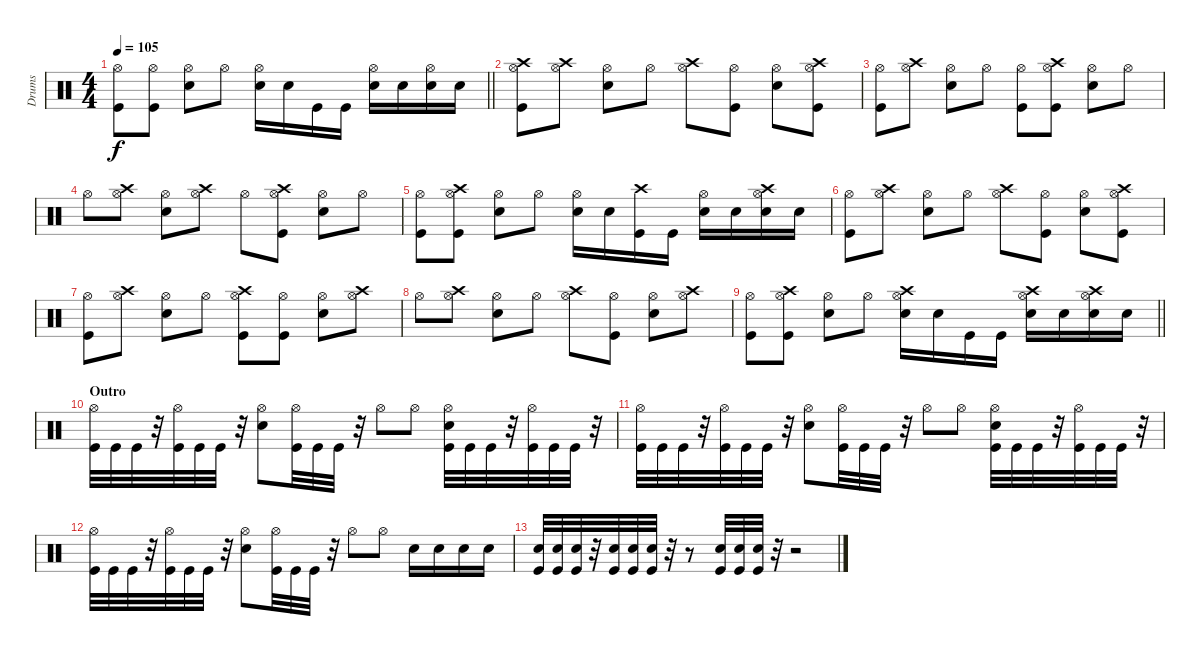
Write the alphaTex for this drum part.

\track ("Drums" "Drums") {instrument percussion}
\staff {score}
\articulation defaults
\ts (4 4)
\tempo 105
\clef neutral
\barLineRight lightlight
\ks c
("Kick (hit)" "Hi-Hat (open)").8{dy f} ("Kick (hit)" "Hi-Hat (open)").8 ("Snare (hit) 2" "Hi-Hat (open)").8 "Hi-Hat (open)".8 ("Snare (hit) 2" "Hi-Hat (open)").16 "Snare (hit) 2".16 "Kick (hit)".16 "Kick (hit)".16 ("Snare (hit) 2" "Hi-Hat (open)").16 "Snare (hit) 2".16 ("Snare (hit) 2" "Hi-Hat (open)").16 "Snare (hit) 2".16 |
("Kick (hit)" "Hi-Hat (open)" "Crash high (hit)").8 ("Crash high (hit)" "Hi-Hat (open)").8 ("Snare (hit) 2" "Hi-Hat (open)").8 "Hi-Hat (open)".8 ("Crash high (hit)" "Hi-Hat (open)").8 ("Kick (hit)" "Hi-Hat (open)").8 ("Snare (hit) 2" "Hi-Hat (open)").8 ("Crash high (hit)" "Kick (hit)" "Hi-Hat (open)").8 |
("Kick (hit)" "Hi-Hat (open)").8 ("Crash high (hit)" "Hi-Hat (open)").8 ("Snare (hit) 2" "Hi-Hat (open)").8 "Hi-Hat (open)".8 ("Kick (hit)" "Hi-Hat (open)").8 ("Crash high (hit)" "Kick (hit)" "Hi-Hat (open)").8 ("Snare (hit) 2" "Hi-Hat (open)").8 "Hi-Hat (open)".8 |
"Hi-Hat (open)".8 ("Crash high (hit)" "Hi-Hat (open)").8 ("Snare (hit) 2" "Hi-Hat (open)").8 ("Crash high (hit)" "Hi-Hat (open)").8 "Hi-Hat (open)".8 ("Crash high (hit)" "Kick (hit)" "Hi-Hat (open)").8 ("Snare (hit) 2" "Hi-Hat (open)").8 "Hi-Hat (open)".8 |
("Kick (hit)" "Hi-Hat (open)").8 ("Crash high (hit)" "Kick (hit)" "Hi-Hat (open)").8 ("Snare (hit) 2" "Hi-Hat (open)").8 "Hi-Hat (open)".8 ("Snare (hit) 2" "Hi-Hat (open)").16 "Snare (hit) 2".16 ("Crash high (hit)" "Kick (hit)").16 "Kick (hit)".16 ("Snare (hit) 2" "Hi-Hat (open)").16 "Snare (hit) 2".16 ("Crash high (hit)" "Snare (hit) 2" "Hi-Hat (open)").16 "Snare (hit) 2".16 |
("Kick (hit)" "Hi-Hat (open)").8 ("Crash high (hit)" "Hi-Hat (open)").8 ("Snare (hit) 2" "Hi-Hat (open)").8 "Hi-Hat (open)".8 ("Crash high (hit)" "Hi-Hat (open)").8 ("Kick (hit)" "Hi-Hat (open)").8 ("Snare (hit) 2" "Hi-Hat (open)").8 ("Crash high (hit)" "Kick (hit)" "Hi-Hat (open)").8 |
("Kick (hit)" "Hi-Hat (open)").8 ("Crash high (hit)" "Hi-Hat (open)").8 ("Snare (hit) 2" "Hi-Hat (open)").8 "Hi-Hat (open)".8 ("Crash high (hit)" "Kick (hit)" "Hi-Hat (open)").8 ("Kick (hit)" "Hi-Hat (open)").8 ("Snare (hit) 2" "Hi-Hat (open)").8 ("Crash high (hit)" "Hi-Hat (open)").8 |
"Hi-Hat (open)".8 ("Crash high (hit)" "Hi-Hat (open)").8 ("Snare (hit) 2" "Hi-Hat (open)").8 "Hi-Hat (open)".8 ("Crash high (hit)" "Hi-Hat (open)").8 ("Kick (hit)" "Hi-Hat (open)").8 ("Snare (hit) 2" "Hi-Hat (open)").8 ("Crash high (hit)" "Hi-Hat (open)").8 |
\barLineRight lightlight
("Kick (hit)" "Hi-Hat (open)").8 ("Crash high (hit)" "Kick (hit)" "Hi-Hat (open)").8 ("Snare (hit) 2" "Hi-Hat (open)").8 "Hi-Hat (open)".8 ("Crash high (hit)" "Snare (hit) 2" "Hi-Hat (open)").16 "Snare (hit) 2".16 "Kick (hit)".16 "Kick (hit)".16 ("Crash high (hit)" "Snare (hit) 2" "Hi-Hat (open)").16 "Snare (hit) 2".16 ("Crash high (hit)" "Snare (hit) 2" "Hi-Hat (open)").16 "Snare (hit) 2".16 |
\section ("" "Outro")
("Kick (hit)" "Hi-Hat (open)").32 "Kick (hit)".32 "Kick (hit)".32 r.32 ("Kick (hit)" "Hi-Hat (open)").32 "Kick (hit)".32 "Kick (hit)".32 r.32 ("Hi-Hat (open)" "Snare (hit) 2").8 ("Hi-Hat (open)" "Kick (hit)").32 "Kick (hit)".32 "Kick (hit)".32 r.32 "Hi-Hat (open)".8 "Hi-Hat (open)".8 ("Hi-Hat (open)" "Snare (hit) 2" "Kick (hit)").32 "Kick (hit)".32 "Kick (hit)".32 r.32 ("Hi-Hat (open)" "Kick (hit)").32 "Kick (hit)".32 "Kick (hit)".32 r.32 |
("Kick (hit)" "Hi-Hat (open)").32 "Kick (hit)".32 "Kick (hit)".32 r.32 ("Kick (hit)" "Hi-Hat (open)").32 "Kick (hit)".32 "Kick (hit)".32 r.32 ("Hi-Hat (open)" "Snare (hit) 2").8 ("Hi-Hat (open)" "Kick (hit)").32 "Kick (hit)".32 "Kick (hit)".32 r.32 "Hi-Hat (open)".8 "Hi-Hat (open)".8 ("Hi-Hat (open)" "Snare (hit) 2" "Kick (hit)").32 "Kick (hit)".32 "Kick (hit)".32 r.32 ("Hi-Hat (open)" "Kick (hit)").32 "Kick (hit)".32 "Kick (hit)".32 r.32 |
("Kick (hit)" "Hi-Hat (open)").32 "Kick (hit)".32 "Kick (hit)".32 r.32 ("Kick (hit)" "Hi-Hat (open)").32 "Kick (hit)".32 "Kick (hit)".32 r.32 ("Hi-Hat (open)" "Snare (hit) 2").8 ("Hi-Hat (open)" "Kick (hit)").32 "Kick (hit)".32 "Kick (hit)".32 r.32 "Hi-Hat (open)".8 "Hi-Hat (open)".8 "Snare (hit) 2".16 "Snare (hit) 2".16 "Snare (hit) 2".16 "Snare (hit) 2".16 |
("Snare (hit) 2" "Kick (hit)").32 ("Snare (hit) 2" "Kick (hit)").32 ("Snare (hit) 2" "Kick (hit)").32 r.32 ("Snare (hit) 2" "Kick (hit)").32 ("Snare (hit) 2" "Kick (hit)").32 ("Snare (hit) 2" "Kick (hit)").32 r.32 r.8 ("Snare (hit) 2" "Kick (hit)").32 ("Snare (hit) 2" "Kick (hit)").32 ("Snare (hit) 2" "Kick (hit)").32 r.32 r.2
